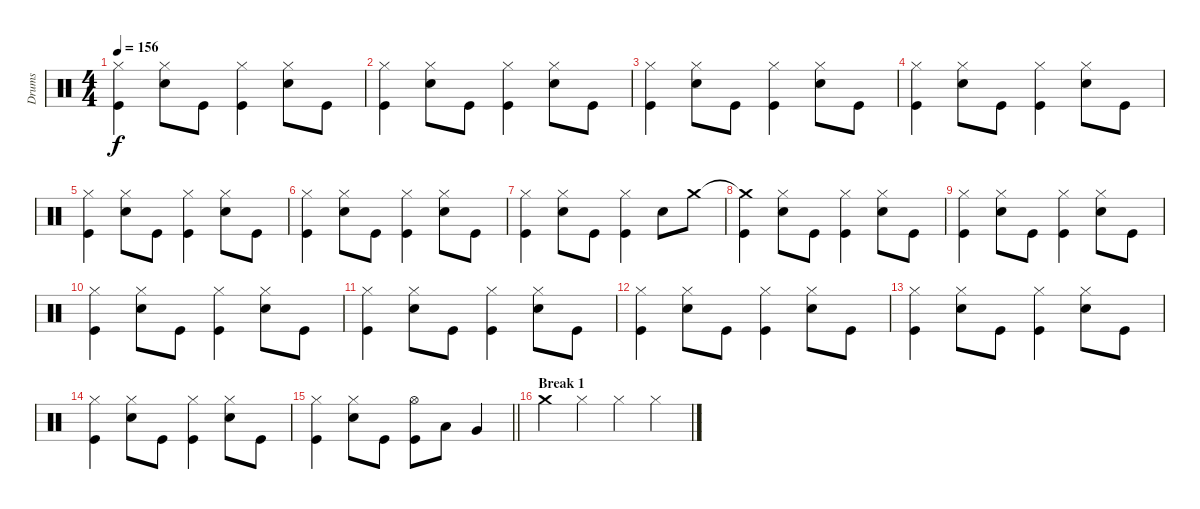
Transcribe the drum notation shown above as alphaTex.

\track ("Drums" "Drums") {instrument percussion}
\staff {score}
\articulation defaults
\ts (4 4)
\tempo 156
\clef neutral
\ks c
("Hi-Hat (closed)" "Kick (hit)").4{dy f} ("Hi-Hat (closed)" "Snare (hit) 2").8 "Kick (hit)".8 ("Hi-Hat (closed)" "Kick (hit)").4 ("Hi-Hat (closed)" "Snare (hit) 2").8 "Kick (hit)".8 |
("Hi-Hat (closed)" "Kick (hit)").4 ("Hi-Hat (closed)" "Snare (hit) 2").8 "Kick (hit)".8 ("Hi-Hat (closed)" "Kick (hit)").4 ("Hi-Hat (closed)" "Snare (hit) 2").8 "Kick (hit)".8 |
("Hi-Hat (closed)" "Kick (hit)").4 ("Hi-Hat (closed)" "Snare (hit) 2").8 "Kick (hit)".8 ("Hi-Hat (closed)" "Kick (hit)").4 ("Hi-Hat (closed)" "Snare (hit) 2").8 "Kick (hit)".8 |
("Hi-Hat (closed)" "Kick (hit)").4 ("Hi-Hat (closed)" "Snare (hit) 2").8 "Kick (hit)".8 ("Hi-Hat (closed)" "Kick (hit)").4 ("Hi-Hat (closed)" "Snare (hit) 2").8 "Kick (hit)".8 |
("Hi-Hat (closed)" "Kick (hit)").4 ("Hi-Hat (closed)" "Snare (hit) 2").8 "Kick (hit)".8 ("Hi-Hat (closed)" "Kick (hit)").4 ("Hi-Hat (closed)" "Snare (hit) 2").8 "Kick (hit)".8 |
("Hi-Hat (closed)" "Kick (hit)").4 ("Hi-Hat (closed)" "Snare (hit) 2").8 "Kick (hit)".8 ("Hi-Hat (closed)" "Kick (hit)").4 ("Hi-Hat (closed)" "Snare (hit) 2").8 "Kick (hit)".8 |
("Hi-Hat (closed)" "Kick (hit)").4 ("Hi-Hat (closed)" "Snare (hit) 2").8 "Kick (hit)".8 ("Hi-Hat (closed)" "Kick (hit)").4 "Snare (hit) 2".8 "Crash medium (hit)".8 |
("Crash medium (hit)"{t} "Kick (hit)").4 ("Hi-Hat (closed)" "Snare (hit) 2").8 "Kick (hit)".8 ("Hi-Hat (closed)" "Kick (hit)").4 ("Hi-Hat (closed)" "Snare (hit) 2").8 "Kick (hit)".8 |
("Hi-Hat (closed)" "Kick (hit)").4 ("Hi-Hat (closed)" "Snare (hit) 2").8 "Kick (hit)".8 ("Hi-Hat (closed)" "Kick (hit)").4 ("Hi-Hat (closed)" "Snare (hit) 2").8 "Kick (hit)".8 |
("Hi-Hat (closed)" "Kick (hit)").4 ("Hi-Hat (closed)" "Snare (hit) 2").8 "Kick (hit)".8 ("Hi-Hat (closed)" "Kick (hit)").4 ("Hi-Hat (closed)" "Snare (hit) 2").8 "Kick (hit)".8 |
("Hi-Hat (closed)" "Kick (hit)").4 ("Hi-Hat (closed)" "Snare (hit) 2").8 "Kick (hit)".8 ("Hi-Hat (closed)" "Kick (hit)").4 ("Hi-Hat (closed)" "Snare (hit) 2").8 "Kick (hit)".8 |
("Hi-Hat (closed)" "Kick (hit)").4 ("Hi-Hat (closed)" "Snare (hit) 2").8 "Kick (hit)".8 ("Hi-Hat (closed)" "Kick (hit)").4 ("Hi-Hat (closed)" "Snare (hit) 2").8 "Kick (hit)".8 |
("Hi-Hat (closed)" "Kick (hit)").4 ("Hi-Hat (closed)" "Snare (hit) 2").8 "Kick (hit)".8 ("Hi-Hat (closed)" "Kick (hit)").4 ("Hi-Hat (closed)" "Snare (hit) 2").8 "Kick (hit)".8 |
("Hi-Hat (closed)" "Kick (hit)").4 ("Hi-Hat (closed)" "Snare (hit) 2").8 "Kick (hit)".8 ("Hi-Hat (closed)" "Kick (hit)").4 ("Hi-Hat (closed)" "Snare (hit) 2").8 "Kick (hit)".8 |
\barLineRight lightlight
("Hi-Hat (closed)" "Kick (hit)").4 ("Hi-Hat (closed)" "Snare (hit) 2").8 "Kick (hit)".8 ("Hi-Hat (open)" "Kick (hit)").8 "Low Tom (hit)".8 "Very Low Tom (hit)".4 |
\section ("" "Break 1")
"Crash medium (hit)".4 "Hi-Hat (closed)".4 "Hi-Hat (closed)".4 "Hi-Hat (closed)".4
